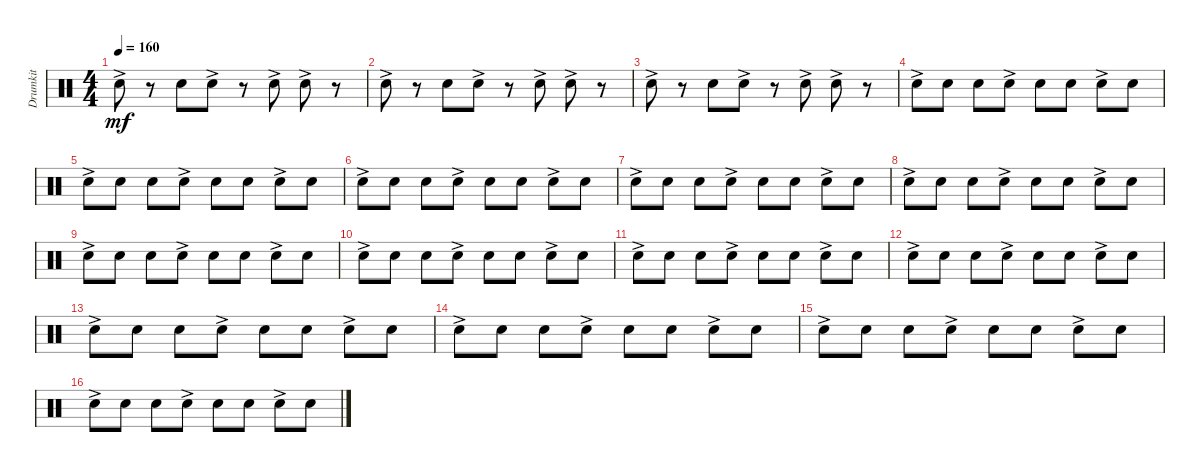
\track ("Drumkit" "Drumkit") {instrument percussion}
\staff {score}
\articulation defaults
\ts (4 4)
\tempo 160
\clef neutral
\ks c "Snare (hit) 2"{ac}.8{dy mf}
r.8 "Snare (hit) 2".8 "Snare (hit) 2"{ac}.8 r.8 "Snare (hit) 2"{ac}.8 "Snare (hit) 2"{ac}.8 r.8 |
"Snare (hit) 2"{ac}.8 r.8 "Snare (hit) 2".8 "Snare (hit) 2"{ac}.8 r.8 "Snare (hit) 2"{ac}.8 "Snare (hit) 2"{ac}.8 r.8 |
"Snare (hit) 2"{ac}.8 r.8 "Snare (hit) 2".8 "Snare (hit) 2"{ac}.8 r.8 "Snare (hit) 2"{ac}.8 "Snare (hit) 2"{ac}.8 r.8 |
"Snare (hit) 2"{ac}.8 "Snare (hit) 2".8 "Snare (hit) 2".8 "Snare (hit) 2"{ac}.8 "Snare (hit) 2".8 "Snare (hit) 2".8 "Snare (hit) 2"{ac}.8 "Snare (hit) 2".8 |
"Snare (hit) 2"{ac}.8 "Snare (hit) 2".8 "Snare (hit) 2".8 "Snare (hit) 2"{ac}.8 "Snare (hit) 2".8 "Snare (hit) 2".8 "Snare (hit) 2"{ac}.8 "Snare (hit) 2".8 |
"Snare (hit) 2"{ac}.8 "Snare (hit) 2".8 "Snare (hit) 2".8 "Snare (hit) 2"{ac}.8 "Snare (hit) 2".8 "Snare (hit) 2".8 "Snare (hit) 2"{ac}.8 "Snare (hit) 2".8 |
"Snare (hit) 2"{ac}.8 "Snare (hit) 2".8 "Snare (hit) 2".8 "Snare (hit) 2"{ac}.8 "Snare (hit) 2".8 "Snare (hit) 2".8 "Snare (hit) 2"{ac}.8 "Snare (hit) 2".8 |
"Snare (hit) 2"{ac}.8 "Snare (hit) 2".8 "Snare (hit) 2".8 "Snare (hit) 2"{ac}.8 "Snare (hit) 2".8 "Snare (hit) 2".8 "Snare (hit) 2"{ac}.8 "Snare (hit) 2".8 |
"Snare (hit) 2"{ac}.8 "Snare (hit) 2".8 "Snare (hit) 2".8 "Snare (hit) 2"{ac}.8 "Snare (hit) 2".8 "Snare (hit) 2".8 "Snare (hit) 2"{ac}.8 "Snare (hit) 2".8 |
"Snare (hit) 2"{ac}.8 "Snare (hit) 2".8 "Snare (hit) 2".8 "Snare (hit) 2"{ac}.8 "Snare (hit) 2".8 "Snare (hit) 2".8 "Snare (hit) 2"{ac}.8 "Snare (hit) 2".8 |
"Snare (hit) 2"{ac}.8 "Snare (hit) 2".8 "Snare (hit) 2".8 "Snare (hit) 2"{ac}.8 "Snare (hit) 2".8 "Snare (hit) 2".8 "Snare (hit) 2"{ac}.8 "Snare (hit) 2".8 |
"Snare (hit) 2"{ac}.8 "Snare (hit) 2".8 "Snare (hit) 2".8 "Snare (hit) 2"{ac}.8 "Snare (hit) 2".8 "Snare (hit) 2".8 "Snare (hit) 2"{ac}.8 "Snare (hit) 2".8 |
"Snare (hit) 2"{ac}.8 "Snare (hit) 2".8 "Snare (hit) 2".8 "Snare (hit) 2"{ac}.8 "Snare (hit) 2".8 "Snare (hit) 2".8 "Snare (hit) 2"{ac}.8 "Snare (hit) 2".8 |
"Snare (hit) 2"{ac}.8 "Snare (hit) 2".8 "Snare (hit) 2".8 "Snare (hit) 2"{ac}.8 "Snare (hit) 2".8 "Snare (hit) 2".8 "Snare (hit) 2"{ac}.8 "Snare (hit) 2".8 |
"Snare (hit) 2"{ac}.8 "Snare (hit) 2".8 "Snare (hit) 2".8 "Snare (hit) 2"{ac}.8 "Snare (hit) 2".8 "Snare (hit) 2".8 "Snare (hit) 2"{ac}.8 "Snare (hit) 2".8 |
"Snare (hit) 2"{ac}.8 "Snare (hit) 2".8 "Snare (hit) 2".8 "Snare (hit) 2"{ac}.8 "Snare (hit) 2".8 "Snare (hit) 2".8 "Snare (hit) 2"{ac}.8 "Snare (hit) 2".8
